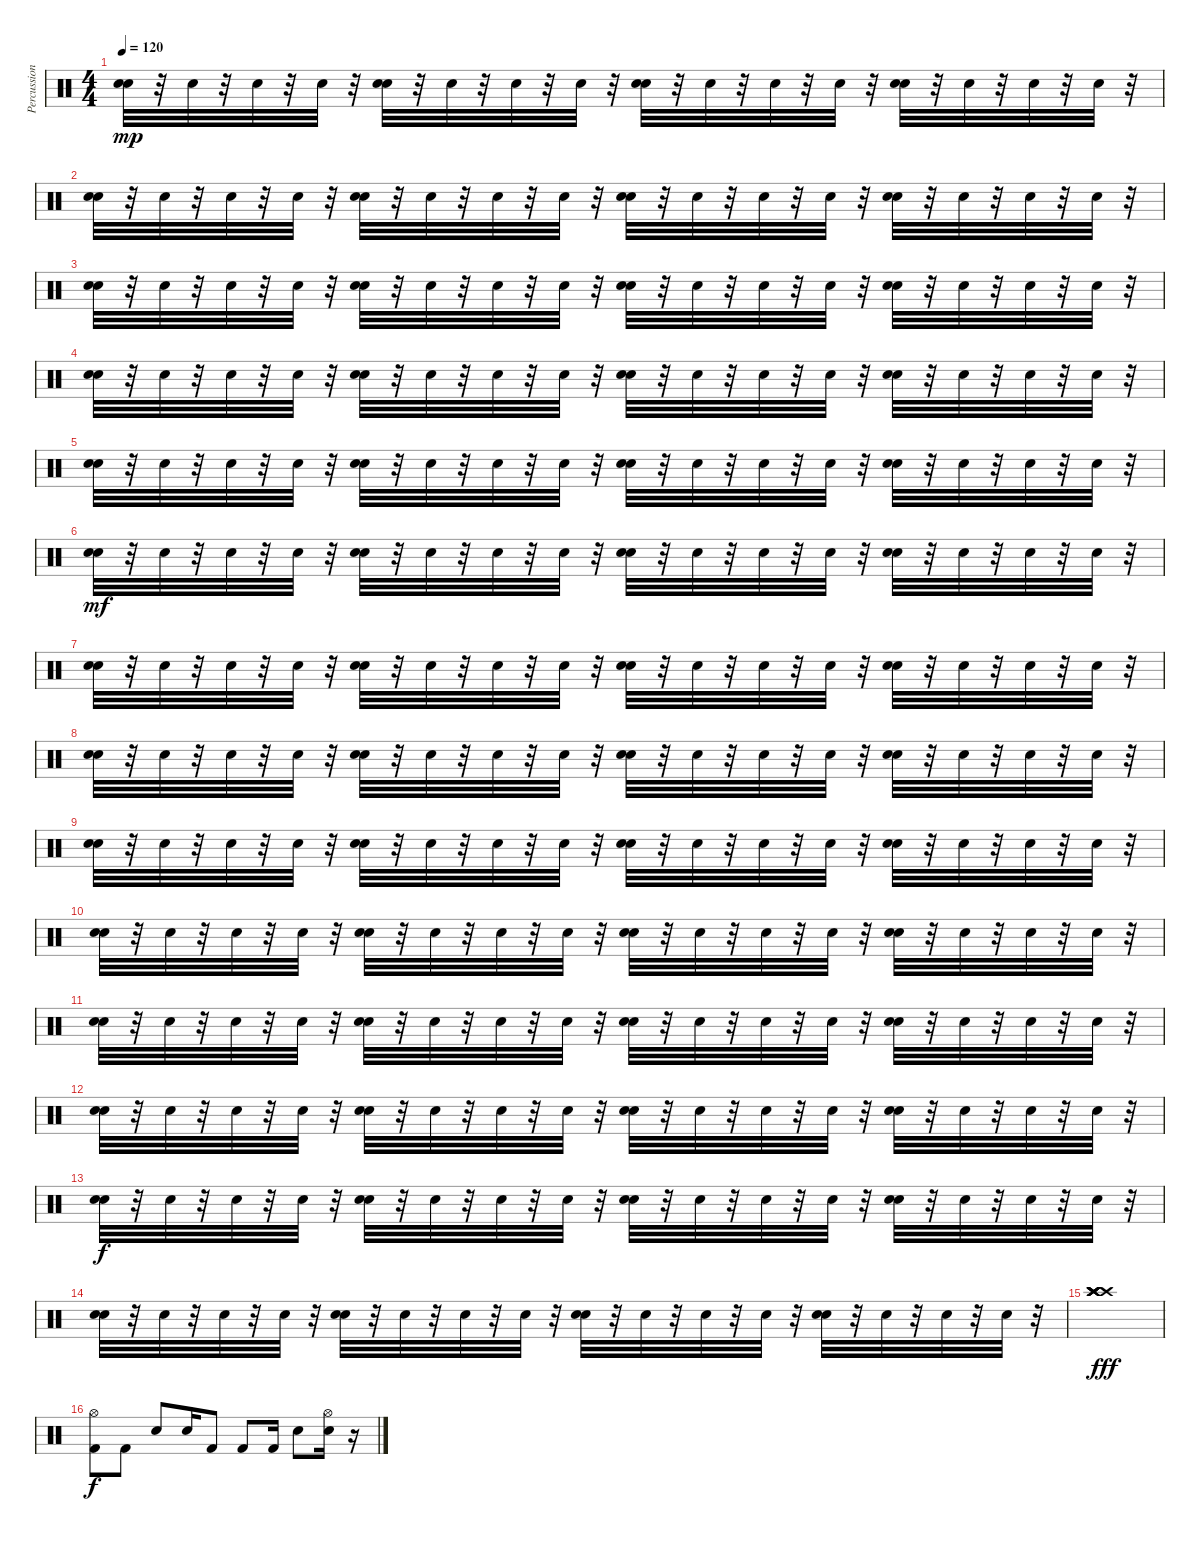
\track ("Percussion - CJ" "Percussion") {instrument percussion}
\staff {score}
\articulation defaults
\ts (4 4)
\tempo 120
\clef neutral
\ks c
("Electric Snare (hit)" "Snare (hit) 2").32{dy mp} r.32 "Snare (hit) 2".32 r.32 "Snare (hit) 2".32 r.32 "Snare (hit) 2".32 r.32 ("Snare (hit) 2" "Electric Snare (hit)").32 r.32 "Snare (hit) 2".32 r.32 "Snare (hit) 2".32 r.32 "Snare (hit) 2".32 r.32 ("Electric Snare (hit)" "Snare (hit) 2").32 r.32 "Snare (hit) 2".32 r.32 "Snare (hit) 2".32 r.32 "Snare (hit) 2".32 r.32 ("Snare (hit) 2" "Electric Snare (hit)").32 r.32 "Snare (hit) 2".32 r.32 "Snare (hit) 2".32 r.32 "Snare (hit) 2".32 r.32 |
("Electric Snare (hit)" "Snare (hit) 2").32 r.32 "Snare (hit) 2".32 r.32 "Snare (hit) 2".32 r.32 "Snare (hit) 2".32 r.32 ("Snare (hit) 2" "Electric Snare (hit)").32 r.32 "Snare (hit) 2".32 r.32 "Snare (hit) 2".32 r.32 "Snare (hit) 2".32 r.32 ("Electric Snare (hit)" "Snare (hit) 2").32 r.32 "Snare (hit) 2".32 r.32 "Snare (hit) 2".32 r.32 "Snare (hit) 2".32 r.32 ("Snare (hit) 2" "Electric Snare (hit)").32 r.32 "Snare (hit) 2".32 r.32 "Snare (hit) 2".32 r.32 "Snare (hit) 2".32 r.32 |
("Electric Snare (hit)" "Snare (hit) 2").32 r.32 "Snare (hit) 2".32 r.32 "Snare (hit) 2".32 r.32 "Snare (hit) 2".32 r.32 ("Snare (hit) 2" "Electric Snare (hit)").32 r.32 "Snare (hit) 2".32 r.32 "Snare (hit) 2".32 r.32 "Snare (hit) 2".32 r.32 ("Electric Snare (hit)" "Snare (hit) 2").32 r.32 "Snare (hit) 2".32 r.32 "Snare (hit) 2".32 r.32 "Snare (hit) 2".32 r.32 ("Snare (hit) 2" "Electric Snare (hit)").32 r.32 "Snare (hit) 2".32 r.32 "Snare (hit) 2".32 r.32 "Snare (hit) 2".32 r.32 |
("Electric Snare (hit)" "Snare (hit) 2").32 r.32 "Snare (hit) 2".32 r.32 "Snare (hit) 2".32 r.32 "Snare (hit) 2".32 r.32 ("Snare (hit) 2" "Electric Snare (hit)").32 r.32 "Snare (hit) 2".32 r.32 "Snare (hit) 2".32 r.32 "Snare (hit) 2".32 r.32 ("Electric Snare (hit)" "Snare (hit) 2").32 r.32 "Snare (hit) 2".32 r.32 "Snare (hit) 2".32 r.32 "Snare (hit) 2".32 r.32 ("Snare (hit) 2" "Electric Snare (hit)").32 r.32 "Snare (hit) 2".32 r.32 "Snare (hit) 2".32 r.32 "Snare (hit) 2".32 r.32 |
("Electric Snare (hit)" "Snare (hit) 2").32 r.32 "Snare (hit) 2".32 r.32 "Snare (hit) 2".32 r.32 "Snare (hit) 2".32 r.32 ("Snare (hit) 2" "Electric Snare (hit)").32 r.32 "Snare (hit) 2".32 r.32 "Snare (hit) 2".32 r.32 "Snare (hit) 2".32 r.32 ("Electric Snare (hit)" "Snare (hit) 2").32 r.32 "Snare (hit) 2".32 r.32 "Snare (hit) 2".32 r.32 "Snare (hit) 2".32 r.32 ("Snare (hit) 2" "Electric Snare (hit)").32 r.32 "Snare (hit) 2".32 r.32 "Snare (hit) 2".32 r.32 "Snare (hit) 2".32 r.32 |
("Electric Snare (hit)" "Snare (hit) 2").32{dy mf} r.32 "Snare (hit) 2".32 r.32 "Snare (hit) 2".32 r.32 "Snare (hit) 2".32 r.32 ("Snare (hit) 2" "Electric Snare (hit)").32 r.32 "Snare (hit) 2".32 r.32 "Snare (hit) 2".32 r.32 "Snare (hit) 2".32 r.32 ("Electric Snare (hit)" "Snare (hit) 2").32 r.32 "Snare (hit) 2".32 r.32 "Snare (hit) 2".32 r.32 "Snare (hit) 2".32 r.32 ("Snare (hit) 2" "Electric Snare (hit)").32 r.32 "Snare (hit) 2".32 r.32 "Snare (hit) 2".32 r.32 "Snare (hit) 2".32 r.32 |
("Electric Snare (hit)" "Snare (hit) 2").32 r.32 "Snare (hit) 2".32 r.32 "Snare (hit) 2".32 r.32 "Snare (hit) 2".32 r.32 ("Snare (hit) 2" "Electric Snare (hit)").32 r.32 "Snare (hit) 2".32 r.32 "Snare (hit) 2".32 r.32 "Snare (hit) 2".32 r.32 ("Electric Snare (hit)" "Snare (hit) 2").32 r.32 "Snare (hit) 2".32 r.32 "Snare (hit) 2".32 r.32 "Snare (hit) 2".32 r.32 ("Snare (hit) 2" "Electric Snare (hit)").32 r.32 "Snare (hit) 2".32 r.32 "Snare (hit) 2".32 r.32 "Snare (hit) 2".32 r.32 |
("Electric Snare (hit)" "Snare (hit) 2").32 r.32 "Snare (hit) 2".32 r.32 "Snare (hit) 2".32 r.32 "Snare (hit) 2".32 r.32 ("Snare (hit) 2" "Electric Snare (hit)").32 r.32 "Snare (hit) 2".32 r.32 "Snare (hit) 2".32 r.32 "Snare (hit) 2".32 r.32 ("Electric Snare (hit)" "Snare (hit) 2").32 r.32 "Snare (hit) 2".32 r.32 "Snare (hit) 2".32 r.32 "Snare (hit) 2".32 r.32 ("Snare (hit) 2" "Electric Snare (hit)").32 r.32 "Snare (hit) 2".32 r.32 "Snare (hit) 2".32 r.32 "Snare (hit) 2".32 r.32 |
("Electric Snare (hit)" "Snare (hit) 2").32 r.32 "Snare (hit) 2".32 r.32 "Snare (hit) 2".32 r.32 "Snare (hit) 2".32 r.32 ("Snare (hit) 2" "Electric Snare (hit)").32 r.32 "Snare (hit) 2".32 r.32 "Snare (hit) 2".32 r.32 "Snare (hit) 2".32 r.32 ("Electric Snare (hit)" "Snare (hit) 2").32 r.32 "Snare (hit) 2".32 r.32 "Snare (hit) 2".32 r.32 "Snare (hit) 2".32 r.32 ("Snare (hit) 2" "Electric Snare (hit)").32 r.32 "Snare (hit) 2".32 r.32 "Snare (hit) 2".32 r.32 "Snare (hit) 2".32 r.32 |
("Electric Snare (hit)" "Snare (hit) 2").32 r.32 "Snare (hit) 2".32 r.32 "Snare (hit) 2".32 r.32 "Snare (hit) 2".32 r.32 ("Snare (hit) 2" "Electric Snare (hit)").32 r.32 "Snare (hit) 2".32 r.32 "Snare (hit) 2".32 r.32 "Snare (hit) 2".32 r.32 ("Electric Snare (hit)" "Snare (hit) 2").32 r.32 "Snare (hit) 2".32 r.32 "Snare (hit) 2".32 r.32 "Snare (hit) 2".32 r.32 ("Snare (hit) 2" "Electric Snare (hit)").32 r.32 "Snare (hit) 2".32 r.32 "Snare (hit) 2".32 r.32 "Snare (hit) 2".32 r.32 |
("Electric Snare (hit)" "Snare (hit) 2").32 r.32 "Snare (hit) 2".32 r.32 "Snare (hit) 2".32 r.32 "Snare (hit) 2".32 r.32 ("Snare (hit) 2" "Electric Snare (hit)").32 r.32 "Snare (hit) 2".32 r.32 "Snare (hit) 2".32 r.32 "Snare (hit) 2".32 r.32 ("Electric Snare (hit)" "Snare (hit) 2").32 r.32 "Snare (hit) 2".32 r.32 "Snare (hit) 2".32 r.32 "Snare (hit) 2".32 r.32 ("Snare (hit) 2" "Electric Snare (hit)").32 r.32 "Snare (hit) 2".32 r.32 "Snare (hit) 2".32 r.32 "Snare (hit) 2".32 r.32 |
("Electric Snare (hit)" "Snare (hit) 2").32 r.32 "Snare (hit) 2".32 r.32 "Snare (hit) 2".32 r.32 "Snare (hit) 2".32 r.32 ("Snare (hit) 2" "Electric Snare (hit)").32 r.32 "Snare (hit) 2".32 r.32 "Snare (hit) 2".32 r.32 "Snare (hit) 2".32 r.32 ("Electric Snare (hit)" "Snare (hit) 2").32 r.32 "Snare (hit) 2".32 r.32 "Snare (hit) 2".32 r.32 "Snare (hit) 2".32 r.32 ("Snare (hit) 2" "Electric Snare (hit)").32 r.32 "Snare (hit) 2".32 r.32 "Snare (hit) 2".32 r.32 "Snare (hit) 2".32 r.32 |
("Electric Snare (hit)" "Snare (hit) 2").32{dy f} r.32 "Snare (hit) 2".32 r.32 "Snare (hit) 2".32 r.32 "Snare (hit) 2".32 r.32 ("Snare (hit) 2" "Electric Snare (hit)").32 r.32 "Snare (hit) 2".32 r.32 "Snare (hit) 2".32 r.32 "Snare (hit) 2".32 r.32 ("Electric Snare (hit)" "Snare (hit) 2").32 r.32 "Snare (hit) 2".32 r.32 "Snare (hit) 2".32 r.32 "Snare (hit) 2".32 r.32 ("Snare (hit) 2" "Electric Snare (hit)").32 r.32 "Snare (hit) 2".32 r.32 "Snare (hit) 2".32 r.32 "Snare (hit) 2".32 r.32 |
("Electric Snare (hit)" "Snare (hit) 2").32 r.32 "Snare (hit) 2".32 r.32 "Snare (hit) 2".32 r.32 "Snare (hit) 2".32 r.32 ("Snare (hit) 2" "Electric Snare (hit)").32 r.32 "Snare (hit) 2".32 r.32 "Snare (hit) 2".32 r.32 "Snare (hit) 2".32 r.32 ("Electric Snare (hit)" "Snare (hit) 2").32 r.32 "Snare (hit) 2".32 r.32 "Snare (hit) 2".32 r.32 "Snare (hit) 2".32 r.32 ("Snare (hit) 2" "Electric Snare (hit)").32 r.32 "Snare (hit) 2".32 r.32 "Snare (hit) 2".32 r.32 "Snare (hit) 2".32 r.32 |
("Crash high (hit)" "Crash high (hit)" "Crash high (hit)" "Crash high (hit)" "Crash high (hit)" "Crash high (hit)").1{dy fff} |
("Kick (hit) 2" "Hi-Hat (open)").8{dy f} "Kick (hit) 2".8 "Electric Snare (hit)".8 "Electric Snare (hit)".16 "Kick (hit) 2".8 "Kick (hit) 2".8 "Kick (hit) 2".16 "Electric Snare (hit)".8 ("Electric Snare (hit)" "Hi-Hat (open)").16 r.16
